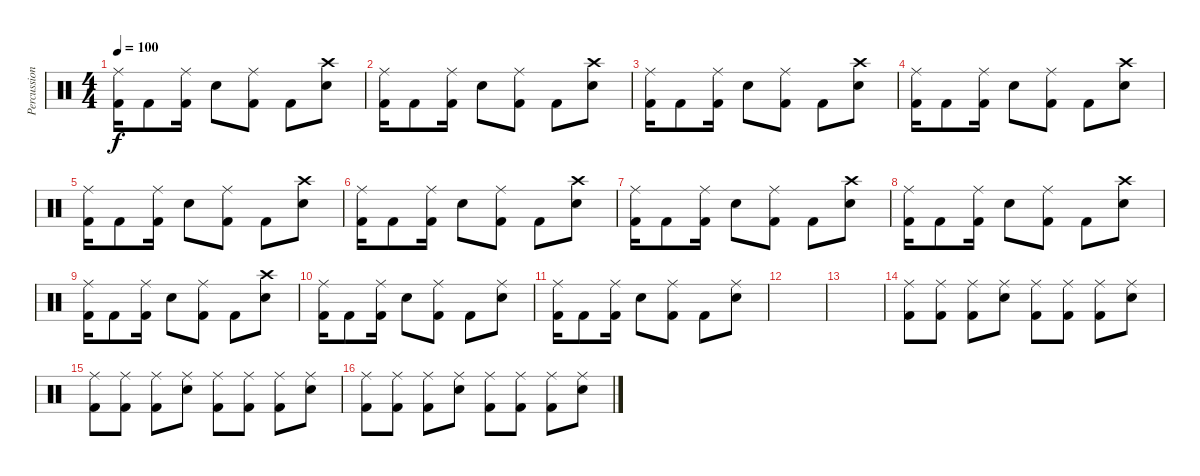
\track ("Percussion" "Percussion") {instrument percussion}
\staff {score}
\articulation defaults
\ts (4 4)
\tempo 100
\clef neutral
\ks c
("Ride (middle)" "Kick (hit) 2").16{dy f} "Kick (hit) 2".8 ("Ride (middle)" "Kick (hit) 2").16 "Electric Snare (hit)".8 ("Ride (middle)" "Kick (hit) 2").8 "Kick (hit) 2".8 ("Crash high (hit)" "Electric Snare (hit)").8 |
("Ride (middle)" "Kick (hit) 2").16 "Kick (hit) 2".8 ("Ride (middle)" "Kick (hit) 2").16 "Electric Snare (hit)".8 ("Ride (middle)" "Kick (hit) 2").8 "Kick (hit) 2".8 ("Crash high (hit)" "Electric Snare (hit)").8 |
("Ride (middle)" "Kick (hit) 2").16 "Kick (hit) 2".8 ("Ride (middle)" "Kick (hit) 2").16 "Electric Snare (hit)".8 ("Ride (middle)" "Kick (hit) 2").8 "Kick (hit) 2".8 ("Crash high (hit)" "Electric Snare (hit)").8 |
("Ride (middle)" "Kick (hit) 2").16 "Kick (hit) 2".8 ("Ride (middle)" "Kick (hit) 2").16 "Electric Snare (hit)".8 ("Ride (middle)" "Kick (hit) 2").8 "Kick (hit) 2".8 ("Crash high (hit)" "Electric Snare (hit)").8 |
("Ride (middle)" "Kick (hit) 2").16 "Kick (hit) 2".8 ("Ride (middle)" "Kick (hit) 2").16 "Electric Snare (hit)".8 ("Ride (middle)" "Kick (hit) 2").8 "Kick (hit) 2".8 ("Crash high (hit)" "Electric Snare (hit)").8 |
("Ride (middle)" "Kick (hit) 2").16 "Kick (hit) 2".8 ("Ride (middle)" "Kick (hit) 2").16 "Electric Snare (hit)".8 ("Ride (middle)" "Kick (hit) 2").8 "Kick (hit) 2".8 ("Crash high (hit)" "Electric Snare (hit)").8 |
("Ride (middle)" "Kick (hit) 2").16 "Kick (hit) 2".8 ("Ride (middle)" "Kick (hit) 2").16 "Electric Snare (hit)".8 ("Ride (middle)" "Kick (hit) 2").8 "Kick (hit) 2".8 ("Crash high (hit)" "Electric Snare (hit)").8 |
("Ride (middle)" "Kick (hit) 2").16 "Kick (hit) 2".8 ("Ride (middle)" "Kick (hit) 2").16 "Electric Snare (hit)".8 ("Ride (middle)" "Kick (hit) 2").8 "Kick (hit) 2".8 ("Crash high (hit)" "Electric Snare (hit)").8 |
("Ride (middle)" "Kick (hit) 2").16 "Kick (hit) 2".8 ("Ride (middle)" "Kick (hit) 2").16 "Electric Snare (hit)".8 ("Ride (middle)" "Kick (hit) 2").8 "Kick (hit) 2".8 ("Crash high (hit)" "Electric Snare (hit)").8 |
("Ride (middle)" "Kick (hit) 2").16 "Kick (hit) 2".8 ("Ride (middle)" "Kick (hit) 2").16 "Electric Snare (hit)".8 ("Ride (middle)" "Kick (hit) 2").8 "Kick (hit) 2".8 ("Ride (middle)" "Electric Snare (hit)").8 |
("Ride (middle)" "Kick (hit) 2").16 "Kick (hit) 2".8 ("Ride (middle)" "Kick (hit) 2").16 "Electric Snare (hit)".8 ("Ride (middle)" "Kick (hit) 2").8 "Kick (hit) 2".8 ("Ride (middle)" "Electric Snare (hit)").8 |
|
|
("Ride (middle)" "Kick (hit) 2").8 ("Ride (middle)" "Kick (hit) 2").8 ("Ride (middle)" "Kick (hit) 2").8 ("Ride (middle)" "Electric Snare (hit)").8 ("Ride (middle)" "Kick (hit) 2").8 ("Ride (middle)" "Kick (hit) 2").8 ("Ride (middle)" "Kick (hit) 2").8 ("Ride (middle)" "Electric Snare (hit)").8 |
("Ride (middle)" "Kick (hit) 2").8 ("Ride (middle)" "Kick (hit) 2").8 ("Ride (middle)" "Kick (hit) 2").8 ("Ride (middle)" "Electric Snare (hit)").8 ("Ride (middle)" "Kick (hit) 2").8 ("Ride (middle)" "Kick (hit) 2").8 ("Ride (middle)" "Kick (hit) 2").8 ("Ride (middle)" "Electric Snare (hit)").8 |
("Ride (middle)" "Kick (hit) 2").8 ("Ride (middle)" "Kick (hit) 2").8 ("Ride (middle)" "Kick (hit) 2").8 ("Ride (middle)" "Electric Snare (hit)").8 ("Ride (middle)" "Kick (hit) 2").8 ("Ride (middle)" "Kick (hit) 2").8 ("Ride (middle)" "Kick (hit) 2").8 ("Ride (middle)" "Electric Snare (hit)").8
